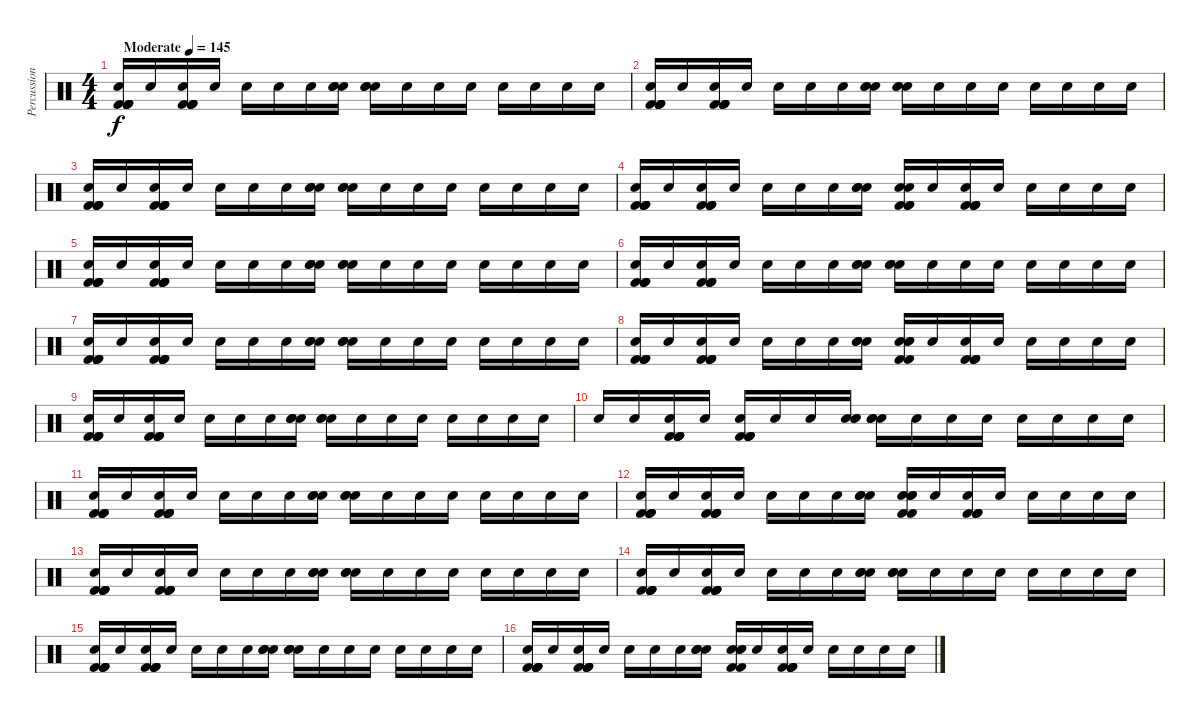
\track ("Percussion" "Percussion") {instrument percussion}
\staff {score}
\articulation defaults
\ts (4 4)
\tempo (145 "Moderate")
\clef neutral
\ks c
("Kick (hit) 2" "Kick (hit) 2" "Kick (hit) 2" "Snare (hit) 2" "Kick (hit) 2").16{dy f volume 8} "Snare (hit) 2".16 ("Kick (hit) 2" "Kick (hit) 2" "Kick (hit) 2" "Snare (hit) 2" "Kick (hit) 2").16 "Snare (hit) 2".16 "Snare (hit) 2".16 "Snare (hit) 2".16 "Snare (hit) 2".16 ("Electric Snare (hit)" "Snare (hit) 2" "Snare (hit) 2").16 ("Electric Snare (hit)" "Snare (hit) 2" "Snare (hit) 2").16 "Snare (hit) 2".16 "Snare (hit) 2".16 "Snare (hit) 2".16 "Snare (hit) 2".16 "Snare (hit) 2".16 "Snare (hit) 2".16 "Snare (hit) 2".16 |
("Kick (hit) 2" "Kick (hit) 2" "Kick (hit) 2" "Snare (hit) 2" "Kick (hit) 2").16 "Snare (hit) 2".16 ("Kick (hit) 2" "Kick (hit) 2" "Kick (hit) 2" "Snare (hit) 2" "Kick (hit) 2").16 "Snare (hit) 2".16 "Snare (hit) 2".16 "Snare (hit) 2".16 "Snare (hit) 2".16 ("Electric Snare (hit)" "Snare (hit) 2" "Snare (hit) 2").16 ("Electric Snare (hit)" "Snare (hit) 2" "Snare (hit) 2").16 "Snare (hit) 2".16 "Snare (hit) 2".16 "Snare (hit) 2".16 "Snare (hit) 2".16 "Snare (hit) 2".16 "Snare (hit) 2".16 "Snare (hit) 2".16 |
("Kick (hit) 2" "Kick (hit) 2" "Kick (hit) 2" "Snare (hit) 2" "Kick (hit) 2").16 "Snare (hit) 2".16 ("Kick (hit) 2" "Kick (hit) 2" "Kick (hit) 2" "Snare (hit) 2" "Kick (hit) 2").16 "Snare (hit) 2".16 "Snare (hit) 2".16 "Snare (hit) 2".16 "Snare (hit) 2".16 ("Electric Snare (hit)" "Snare (hit) 2" "Snare (hit) 2").16 ("Electric Snare (hit)" "Snare (hit) 2" "Snare (hit) 2").16 "Snare (hit) 2".16 "Snare (hit) 2".16 "Snare (hit) 2".16 "Snare (hit) 2".16 "Snare (hit) 2".16 "Snare (hit) 2".16 "Snare (hit) 2".16 |
("Kick (hit) 2" "Kick (hit) 2" "Kick (hit) 2" "Snare (hit) 2" "Kick (hit) 2").16 "Snare (hit) 2".16 ("Kick (hit) 2" "Kick (hit) 2" "Kick (hit) 2" "Snare (hit) 2" "Kick (hit) 2").16 "Snare (hit) 2".16 "Snare (hit) 2".16 "Snare (hit) 2".16 "Snare (hit) 2".16 ("Electric Snare (hit)" "Snare (hit) 2" "Snare (hit) 2").16 ("Electric Snare (hit)" "Kick (hit) 2" "Kick (hit) 2" "Snare (hit) 2" "Kick (hit) 2").16 "Snare (hit) 2".16 ("Kick (hit) 2" "Kick (hit) 2" "Kick (hit) 2" "Snare (hit) 2" "Kick (hit) 2").16 "Snare (hit) 2".16 "Snare (hit) 2".16 "Snare (hit) 2".16 "Snare (hit) 2".16 "Snare (hit) 2".16 |
("Kick (hit) 2" "Kick (hit) 2" "Kick (hit) 2" "Snare (hit) 2" "Kick (hit) 2").16 "Snare (hit) 2".16 ("Kick (hit) 2" "Kick (hit) 2" "Kick (hit) 2" "Snare (hit) 2" "Kick (hit) 2").16 "Snare (hit) 2".16 "Snare (hit) 2".16 "Snare (hit) 2".16 "Snare (hit) 2".16 ("Electric Snare (hit)" "Snare (hit) 2" "Snare (hit) 2").16 ("Electric Snare (hit)" "Snare (hit) 2" "Snare (hit) 2").16 "Snare (hit) 2".16 "Snare (hit) 2".16 "Snare (hit) 2".16 "Snare (hit) 2".16 "Snare (hit) 2".16 "Snare (hit) 2".16 "Snare (hit) 2".16 |
("Kick (hit) 2" "Kick (hit) 2" "Kick (hit) 2" "Snare (hit) 2" "Kick (hit) 2").16 "Snare (hit) 2".16 ("Kick (hit) 2" "Kick (hit) 2" "Kick (hit) 2" "Snare (hit) 2" "Kick (hit) 2").16 "Snare (hit) 2".16 "Snare (hit) 2".16 "Snare (hit) 2".16 "Snare (hit) 2".16 ("Electric Snare (hit)" "Snare (hit) 2" "Snare (hit) 2").16 ("Electric Snare (hit)" "Snare (hit) 2" "Snare (hit) 2").16 "Snare (hit) 2".16 "Snare (hit) 2".16 "Snare (hit) 2".16 "Snare (hit) 2".16 "Snare (hit) 2".16 "Snare (hit) 2".16 "Snare (hit) 2".16 |
("Kick (hit) 2" "Kick (hit) 2" "Kick (hit) 2" "Snare (hit) 2" "Kick (hit) 2").16 "Snare (hit) 2".16 ("Kick (hit) 2" "Kick (hit) 2" "Kick (hit) 2" "Snare (hit) 2" "Kick (hit) 2").16 "Snare (hit) 2".16 "Snare (hit) 2".16 "Snare (hit) 2".16 "Snare (hit) 2".16 ("Electric Snare (hit)" "Snare (hit) 2" "Snare (hit) 2").16 ("Electric Snare (hit)" "Snare (hit) 2" "Snare (hit) 2").16 "Snare (hit) 2".16 "Snare (hit) 2".16 "Snare (hit) 2".16 "Snare (hit) 2".16 "Snare (hit) 2".16 "Snare (hit) 2".16 "Snare (hit) 2".16 |
("Kick (hit) 2" "Kick (hit) 2" "Kick (hit) 2" "Snare (hit) 2" "Kick (hit) 2").16 "Snare (hit) 2".16 ("Kick (hit) 2" "Kick (hit) 2" "Kick (hit) 2" "Snare (hit) 2" "Kick (hit) 2").16 "Snare (hit) 2".16 "Snare (hit) 2".16 "Snare (hit) 2".16 "Snare (hit) 2".16 ("Electric Snare (hit)" "Snare (hit) 2" "Snare (hit) 2").16 ("Electric Snare (hit)" "Electric Snare (hit)" "Kick (hit) 2" "Snare (hit) 2" "Kick (hit) 2").16 "Snare (hit) 2".16 ("Kick (hit) 2" "Kick (hit) 2" "Kick (hit) 2" "Snare (hit) 2" "Kick (hit) 2").16 "Snare (hit) 2".16 "Snare (hit) 2".16 "Snare (hit) 2".16 "Snare (hit) 2".16 "Snare (hit) 2".16 |
("Kick (hit) 2" "Kick (hit) 2" "Kick (hit) 2" "Snare (hit) 2" "Kick (hit) 2").16 "Snare (hit) 2".16 ("Kick (hit) 2" "Kick (hit) 2" "Kick (hit) 2" "Snare (hit) 2" "Kick (hit) 2").16 "Snare (hit) 2".16 "Snare (hit) 2".16 "Snare (hit) 2".16 "Snare (hit) 2".16 ("Electric Snare (hit)" "Snare (hit) 2" "Snare (hit) 2").16 ("Electric Snare (hit)" "Snare (hit) 2" "Snare (hit) 2").16 "Snare (hit) 2".16 "Snare (hit) 2".16 "Snare (hit) 2".16 "Snare (hit) 2".16 "Snare (hit) 2".16 "Snare (hit) 2".16 "Snare (hit) 2".16 |
"Snare (hit) 2".16 "Snare (hit) 2".16 ("Kick (hit) 2" "Kick (hit) 2" "Kick (hit) 2" "Snare (hit) 2" "Kick (hit) 2").16 "Snare (hit) 2".16 ("Kick (hit) 2" "Kick (hit) 2" "Kick (hit) 2" "Snare (hit) 2" "Kick (hit) 2").16 "Snare (hit) 2".16 "Snare (hit) 2".16 ("Electric Snare (hit)" "Snare (hit) 2" "Snare (hit) 2").16 ("Electric Snare (hit)" "Snare (hit) 2" "Snare (hit) 2").16 "Snare (hit) 2".16 "Snare (hit) 2".16 "Snare (hit) 2".16 "Snare (hit) 2".16 "Snare (hit) 2".16 "Snare (hit) 2".16 "Snare (hit) 2".16 |
("Kick (hit) 2" "Kick (hit) 2" "Kick (hit) 2" "Snare (hit) 2" "Kick (hit) 2").16 "Snare (hit) 2".16 ("Kick (hit) 2" "Kick (hit) 2" "Kick (hit) 2" "Snare (hit) 2" "Kick (hit) 2").16 "Snare (hit) 2".16 "Snare (hit) 2".16 "Snare (hit) 2".16 "Snare (hit) 2".16 ("Electric Snare (hit)" "Snare (hit) 2" "Snare (hit) 2").16 ("Electric Snare (hit)" "Snare (hit) 2" "Snare (hit) 2").16 "Snare (hit) 2".16 "Snare (hit) 2".16 "Snare (hit) 2".16 "Snare (hit) 2".16 "Snare (hit) 2".16 "Snare (hit) 2".16 "Snare (hit) 2".16 |
("Kick (hit) 2" "Kick (hit) 2" "Kick (hit) 2" "Snare (hit) 2" "Kick (hit) 2").16 "Snare (hit) 2".16 ("Kick (hit) 2" "Kick (hit) 2" "Kick (hit) 2" "Snare (hit) 2" "Kick (hit) 2").16 "Snare (hit) 2".16 "Snare (hit) 2".16 "Snare (hit) 2".16 "Snare (hit) 2".16 ("Electric Snare (hit)" "Snare (hit) 2" "Snare (hit) 2").16 ("Electric Snare (hit)" "Electric Snare (hit)" "Kick (hit) 2" "Snare (hit) 2" "Kick (hit) 2").16 "Snare (hit) 2".16 ("Kick (hit) 2" "Kick (hit) 2" "Kick (hit) 2" "Snare (hit) 2" "Kick (hit) 2").16 "Snare (hit) 2".16 "Snare (hit) 2".16 "Snare (hit) 2".16 "Snare (hit) 2".16 "Snare (hit) 2".16 |
("Kick (hit) 2" "Kick (hit) 2" "Kick (hit) 2" "Snare (hit) 2" "Kick (hit) 2").16 "Snare (hit) 2".16 ("Kick (hit) 2" "Kick (hit) 2" "Kick (hit) 2" "Snare (hit) 2" "Kick (hit) 2").16 "Snare (hit) 2".16 "Snare (hit) 2".16 "Snare (hit) 2".16 "Snare (hit) 2".16 ("Electric Snare (hit)" "Snare (hit) 2" "Snare (hit) 2").16 ("Electric Snare (hit)" "Snare (hit) 2" "Snare (hit) 2").16 "Snare (hit) 2".16 "Snare (hit) 2".16 "Snare (hit) 2".16 "Snare (hit) 2".16 "Snare (hit) 2".16 "Snare (hit) 2".16 "Snare (hit) 2".16 |
("Kick (hit) 2" "Kick (hit) 2" "Kick (hit) 2" "Snare (hit) 2" "Kick (hit) 2").16 "Snare (hit) 2".16 ("Kick (hit) 2" "Kick (hit) 2" "Kick (hit) 2" "Snare (hit) 2" "Kick (hit) 2").16 "Snare (hit) 2".16 "Snare (hit) 2".16 "Snare (hit) 2".16 "Snare (hit) 2".16 ("Electric Snare (hit)" "Snare (hit) 2" "Snare (hit) 2").16 ("Electric Snare (hit)" "Snare (hit) 2" "Snare (hit) 2").16 "Snare (hit) 2".16 "Snare (hit) 2".16 "Snare (hit) 2".16 "Snare (hit) 2".16 "Snare (hit) 2".16 "Snare (hit) 2".16 "Snare (hit) 2".16 |
("Kick (hit) 2" "Kick (hit) 2" "Kick (hit) 2" "Snare (hit) 2" "Kick (hit) 2").16 "Snare (hit) 2".16 ("Kick (hit) 2" "Kick (hit) 2" "Kick (hit) 2" "Snare (hit) 2" "Kick (hit) 2").16 "Snare (hit) 2".16 "Snare (hit) 2".16 "Snare (hit) 2".16 "Snare (hit) 2".16 ("Electric Snare (hit)" "Snare (hit) 2" "Snare (hit) 2").16 ("Electric Snare (hit)" "Snare (hit) 2" "Snare (hit) 2").16 "Snare (hit) 2".16 "Snare (hit) 2".16 "Snare (hit) 2".16 "Snare (hit) 2".16 "Snare (hit) 2".16 "Snare (hit) 2".16 "Snare (hit) 2".16 |
("Kick (hit) 2" "Kick (hit) 2" "Kick (hit) 2" "Snare (hit) 2" "Kick (hit) 2").16 "Snare (hit) 2".16 ("Kick (hit) 2" "Kick (hit) 2" "Kick (hit) 2" "Snare (hit) 2" "Kick (hit) 2").16 "Snare (hit) 2".16 "Snare (hit) 2".16 "Snare (hit) 2".16 "Snare (hit) 2".16 ("Electric Snare (hit)" "Snare (hit) 2" "Snare (hit) 2").16 ("Electric Snare (hit)" "Electric Snare (hit)" "Kick (hit) 2" "Snare (hit) 2" "Kick (hit) 2").16 "Snare (hit) 2".16 ("Kick (hit) 2" "Kick (hit) 2" "Kick (hit) 2" "Snare (hit) 2" "Kick (hit) 2").16 "Snare (hit) 2".16 "Snare (hit) 2".16 "Snare (hit) 2".16 "Snare (hit) 2".16 "Snare (hit) 2".16
